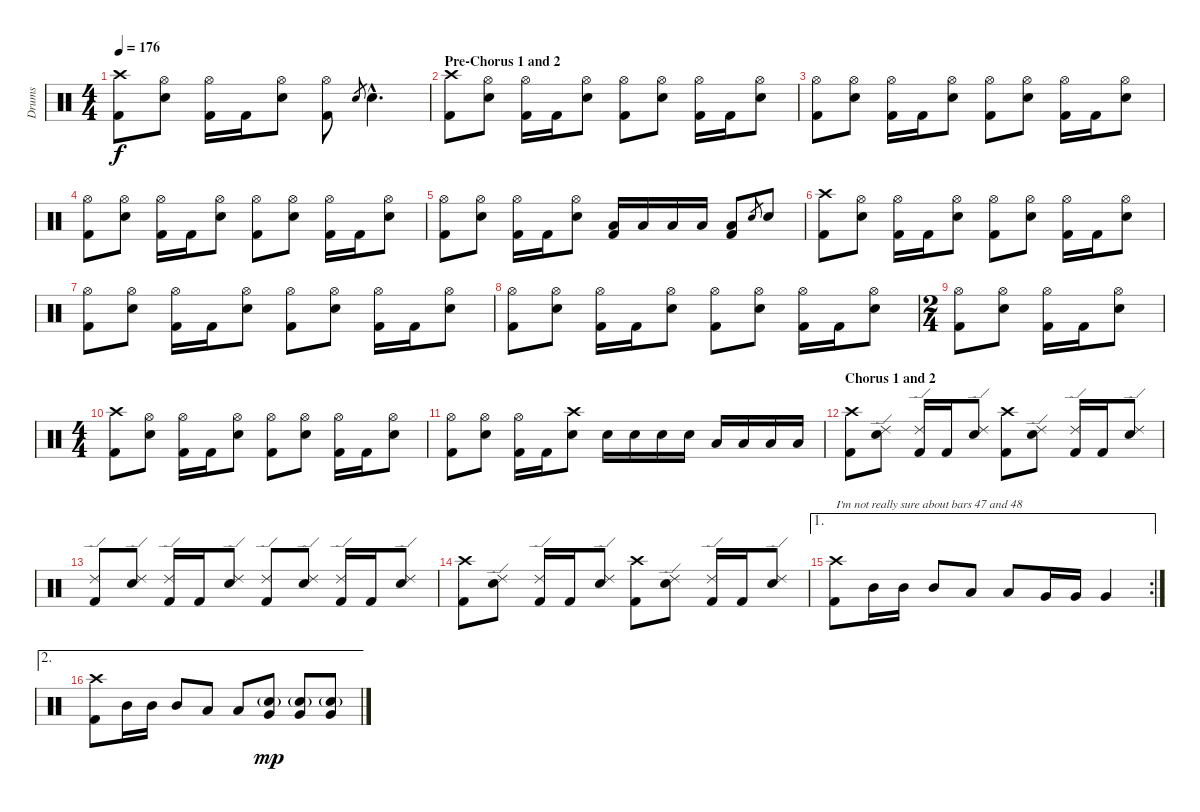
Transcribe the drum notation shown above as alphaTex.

\track ("Drums" "Drums") {instrument percussion}
\staff {score}
\articulation defaults
\ts (4 4)
\tempo 176
\clef neutral
\ks c
("Crash high (hit)" "Kick (hit) 2").8{dy f} ("Hi-Hat (open)" "Electric Snare (hit)").8 ("Hi-Hat (open)" "Kick (hit) 2").16 "Kick (hit) 2".16 ("Hi-Hat (open)" "Electric Snare (hit)").8 ("Hi-Hat (open)" "Kick (hit) 2").8 "Electric Snare (hit)".8{gr} "Electric Snare (hit)"{hac}.4{d} |
\section ("" "Pre-Chorus 1 and 2")
("Crash high (hit)" "Kick (hit) 2").8 ("Hi-Hat (open)" "Electric Snare (hit)").8 ("Hi-Hat (open)" "Kick (hit) 2").16 "Kick (hit) 2".16 ("Hi-Hat (open)" "Electric Snare (hit)").8 ("Hi-Hat (open)" "Kick (hit) 2").8 ("Hi-Hat (open)" "Electric Snare (hit)").8 ("Hi-Hat (open)" "Kick (hit) 2").16 "Kick (hit) 2".16 ("Hi-Hat (open)" "Electric Snare (hit)").8 |
("Hi-Hat (open)" "Kick (hit) 2").8 ("Hi-Hat (open)" "Electric Snare (hit)").8 ("Hi-Hat (open)" "Kick (hit) 2").16 "Kick (hit) 2".16 ("Hi-Hat (open)" "Electric Snare (hit)").8 ("Hi-Hat (open)" "Kick (hit) 2").8 ("Hi-Hat (open)" "Electric Snare (hit)").8 ("Hi-Hat (open)" "Kick (hit) 2").16 "Kick (hit) 2".16 ("Hi-Hat (open)" "Electric Snare (hit)").8 |
("Hi-Hat (open)" "Kick (hit) 2").8 ("Hi-Hat (open)" "Electric Snare (hit)").8 ("Hi-Hat (open)" "Kick (hit) 2").16 "Kick (hit) 2".16 ("Hi-Hat (open)" "Electric Snare (hit)").8 ("Hi-Hat (open)" "Kick (hit) 2").8 ("Hi-Hat (open)" "Electric Snare (hit)").8 ("Hi-Hat (open)" "Kick (hit) 2").16 "Kick (hit) 2".16 ("Hi-Hat (open)" "Electric Snare (hit)").8 |
("Hi-Hat (open)" "Kick (hit) 2").8 ("Hi-Hat (open)" "Electric Snare (hit)").8 ("Hi-Hat (open)" "Kick (hit) 2").16 "Kick (hit) 2".16 ("Hi-Hat (open)" "Electric Snare (hit)").8 ("Low Tom (hit)" "Kick (hit) 2").16 "Low Tom (hit)".16 "Low Tom (hit)".16 "Low Tom (hit)".16 ("Low Tom (hit)" "Kick (hit) 2").8 "Electric Snare (hit)".8{gr} "Electric Snare (hit)".8 |
("Crash high (hit)" "Kick (hit) 2").8 ("Hi-Hat (open)" "Electric Snare (hit)").8 ("Hi-Hat (open)" "Kick (hit) 2").16 "Kick (hit) 2".16 ("Hi-Hat (open)" "Electric Snare (hit)").8 ("Hi-Hat (open)" "Kick (hit) 2").8 ("Hi-Hat (open)" "Electric Snare (hit)").8 ("Hi-Hat (open)" "Kick (hit) 2").16 "Kick (hit) 2".16 ("Hi-Hat (open)" "Electric Snare (hit)").8 |
("Hi-Hat (open)" "Kick (hit) 2").8 ("Hi-Hat (open)" "Electric Snare (hit)").8 ("Hi-Hat (open)" "Kick (hit) 2").16 "Kick (hit) 2".16 ("Hi-Hat (open)" "Electric Snare (hit)").8 ("Hi-Hat (open)" "Kick (hit) 2").8 ("Hi-Hat (open)" "Electric Snare (hit)").8 ("Hi-Hat (open)" "Kick (hit) 2").16 "Kick (hit) 2".16 ("Hi-Hat (open)" "Electric Snare (hit)").8 |
("Hi-Hat (open)" "Kick (hit) 2").8 ("Hi-Hat (open)" "Electric Snare (hit)").8 ("Hi-Hat (open)" "Kick (hit) 2").16 "Kick (hit) 2".16 ("Hi-Hat (open)" "Electric Snare (hit)").8 ("Hi-Hat (open)" "Kick (hit) 2").8 ("Hi-Hat (open)" "Electric Snare (hit)").8 ("Hi-Hat (open)" "Kick (hit) 2").16 "Kick (hit) 2".16 ("Hi-Hat (open)" "Electric Snare (hit)").8 |
\ts (2 4)
("Hi-Hat (open)" "Kick (hit) 2").8 ("Hi-Hat (open)" "Electric Snare (hit)").8 ("Hi-Hat (open)" "Kick (hit) 2").16 "Kick (hit) 2".16 ("Hi-Hat (open)" "Electric Snare (hit)").8 |
\ts (4 4)
("Crash high (hit)" "Kick (hit) 2").8 ("Hi-Hat (open)" "Electric Snare (hit)").8 ("Hi-Hat (open)" "Kick (hit) 2").16 "Kick (hit) 2".16 ("Hi-Hat (open)" "Electric Snare (hit)").8 ("Hi-Hat (open)" "Kick (hit) 2").8 ("Hi-Hat (open)" "Electric Snare (hit)").8 ("Hi-Hat (open)" "Kick (hit) 2").16 "Kick (hit) 2".16 ("Hi-Hat (open)" "Electric Snare (hit)").8 |
("Hi-Hat (open)" "Kick (hit) 2").8 ("Hi-Hat (open)" "Electric Snare (hit)").8 ("Hi-Hat (open)" "Kick (hit) 2").16 "Kick (hit) 2".16 ("Crash high (hit)" "Electric Snare (hit)").8 "Electric Snare (hit)".16 "Electric Snare (hit)".16 "Electric Snare (hit)".16 "Electric Snare (hit)".16 "Low Tom (hit)".16 "Low Tom (hit)".16 "Low Tom (hit)".16 "Low Tom (hit)".16 |
\section ("" "Chorus 1 and 2")
("Crash high (hit)" "Kick (hit) 2").8 ("Ride (edge) 2" "Electric Snare (hit)").8 ("Ride (edge) 2" "Kick (hit) 2").16 "Kick (hit) 2".16 ("Ride (edge) 2" "Electric Snare (hit)").8 ("Crash high (hit)" "Kick (hit) 2").8 ("Ride (edge) 2" "Electric Snare (hit)").8 ("Ride (edge) 2" "Kick (hit) 2").16 "Kick (hit) 2".16 ("Ride (edge) 2" "Electric Snare (hit)").8 |
("Ride (edge) 2" "Kick (hit) 2").8 ("Ride (edge) 2" "Electric Snare (hit)").8 ("Ride (edge) 2" "Kick (hit) 2").16 "Kick (hit) 2".16 ("Ride (edge) 2" "Electric Snare (hit)").8 ("Ride (edge) 2" "Kick (hit) 2").8 ("Ride (edge) 2" "Electric Snare (hit)").8 ("Ride (edge) 2" "Kick (hit) 2").16 "Kick (hit) 2".16 ("Ride (edge) 2" "Electric Snare (hit)").8 |
("Crash high (hit)" "Kick (hit) 2").8 ("Ride (edge) 2" "Electric Snare (hit)").8 ("Ride (edge) 2" "Kick (hit) 2").16 "Kick (hit) 2".16 ("Ride (edge) 2" "Electric Snare (hit)").8 ("Crash high (hit)" "Kick (hit) 2").8 ("Ride (edge) 2" "Electric Snare (hit)").8 ("Ride (edge) 2" "Kick (hit) 2").16 "Kick (hit) 2".16 ("Ride (edge) 2" "Electric Snare (hit)").8 |
\ae 1
\rc 2
("Crash high (hit)" "Kick (hit) 2").8{txt "I'm not really sure about bars 47 and 48"} "Mid Tom (hit)".16 "Mid Tom (hit)".16 "Mid Tom (hit)".8 "Low Tom (hit)".8 "Low Tom (hit)".8 "Very Low Tom (hit)".16 "Very Low Tom (hit)".16 "Very Low Tom (hit)".4 |
\ae 2
("Crash high (hit)" "Kick (hit) 2").8 "Mid Tom (hit)".16 "Mid Tom (hit)".16 "Mid Tom (hit)".8 "Low Tom (hit)".8 "Low Tom (hit)".8 ("Electric Snare (hit)"{g} "Very Low Tom (hit)").8{dy mp} ("Electric Snare (hit)"{g} "Very Low Tom (hit)").8 ("Electric Snare (hit)"{g} "Very Low Tom (hit)").8
